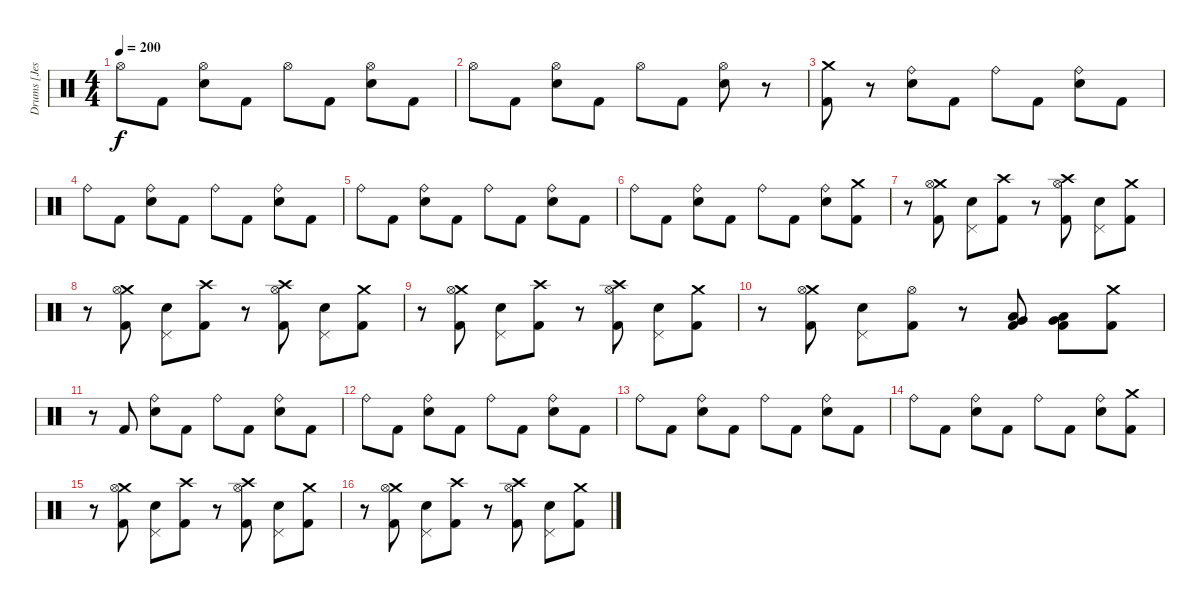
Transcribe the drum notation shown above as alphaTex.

\track ("Drums [Jesse Ingelevics]" "Drums [Jes") {instrument percussion}
\staff {score}
\articulation defaults
\ts (4 4)
\tempo 200
\clef neutral
\ks c "Hi-Hat (open)".8{dy f} "Kick (hit) 2".8
("Hi-Hat (open)" "Electric Snare (hit)").8 "Kick (hit) 2".8 "Hi-Hat (open)".8 "Kick (hit) 2".8 ("Hi-Hat (open)" "Electric Snare (hit)").8 "Kick (hit) 2".8 |
"Hi-Hat (open)".8 "Kick (hit) 2".8 ("Hi-Hat (open)" "Electric Snare (hit)").8 "Kick (hit) 2".8 "Hi-Hat (open)".8 "Kick (hit) 2".8 ("Hi-Hat (open)" "Electric Snare (hit)").8 r.8 |
("Crash medium (hit)" "Kick (hit) 2").8 r.8 ("Ride (bell)" "Electric Snare (hit)").8 "Kick (hit) 2".8 "Ride (bell)".8 "Kick (hit) 2".8 ("Ride (bell)" "Electric Snare (hit)").8 "Kick (hit) 2".8 |
"Ride (bell)".8 "Kick (hit) 2".8 ("Ride (bell)" "Electric Snare (hit)").8 "Kick (hit) 2".8 "Ride (bell)".8 "Kick (hit) 2".8 ("Ride (bell)" "Electric Snare (hit)").8 "Kick (hit) 2".8 |
"Ride (bell)".8 "Kick (hit) 2".8 ("Ride (bell)" "Electric Snare (hit)").8 "Kick (hit) 2".8 "Ride (bell)".8 "Kick (hit) 2".8 ("Ride (bell)" "Electric Snare (hit)").8 "Kick (hit) 2".8 |
"Ride (bell)".8 "Kick (hit) 2".8 ("Ride (bell)" "Electric Snare (hit)").8 "Kick (hit) 2".8 "Ride (bell)".8 "Kick (hit) 2".8 ("Ride (bell)" "Electric Snare (hit)").8 ("Crash medium (hit)" "Kick (hit) 2").8 |
r.8 ("Crash medium (hit)" "Hi-Hat (open)" "Kick (hit) 2").8 ("Pedal Hi-Hat (hit)" "Electric Snare (hit)").8 ("Crash high (hit)" "Kick (hit) 2").8 r.8 ("Crash high (hit)" "Hi-Hat (open)" "Kick (hit) 2").8 ("Pedal Hi-Hat (hit)" "Electric Snare (hit)").8 ("Crash medium (hit)" "Kick (hit) 2").8 |
r.8 ("Crash medium (hit)" "Hi-Hat (open)" "Kick (hit) 2").8 ("Pedal Hi-Hat (hit)" "Electric Snare (hit)").8 ("Crash high (hit)" "Kick (hit) 2").8 r.8 ("Crash high (hit)" "Hi-Hat (open)" "Kick (hit) 2").8 ("Pedal Hi-Hat (hit)" "Electric Snare (hit)").8 ("Crash medium (hit)" "Kick (hit) 2").8 |
r.8 ("Crash medium (hit)" "Hi-Hat (open)" "Kick (hit) 2").8 ("Pedal Hi-Hat (hit)" "Electric Snare (hit)").8 ("Crash high (hit)" "Kick (hit) 2").8 r.8 ("Crash high (hit)" "Hi-Hat (open)" "Kick (hit) 2").8 ("Pedal Hi-Hat (hit)" "Electric Snare (hit)").8 ("Crash medium (hit)" "Kick (hit) 2").8 |
r.8 ("Crash medium (hit)" "Hi-Hat (open)" "Kick (hit) 2").8 ("Pedal Hi-Hat (hit)" "Electric Snare (hit)").8 ("Hi-Hat (open)" "Kick (hit) 2").8 r.8 ("Low Floor Tom (hit)" "Very Low Tom (hit)" "Kick (hit) 2").8 ("Very Low Tom (hit)" "Low Floor Tom (hit)" "Kick (hit) 2").8 ("Crash medium (hit)" "Kick (hit) 2").8 |
r.8 "Kick (hit) 2".8 ("Ride (bell)" "Electric Snare (hit)").8 "Kick (hit) 2".8 "Ride (bell)".8 "Kick (hit) 2".8 ("Ride (bell)" "Electric Snare (hit)").8 "Kick (hit) 2".8 |
"Ride (bell)".8 "Kick (hit) 2".8 ("Ride (bell)" "Electric Snare (hit)").8 "Kick (hit) 2".8 "Ride (bell)".8 "Kick (hit) 2".8 ("Ride (bell)" "Electric Snare (hit)").8 "Kick (hit) 2".8 |
"Ride (bell)".8 "Kick (hit) 2".8 ("Ride (bell)" "Electric Snare (hit)").8 "Kick (hit) 2".8 "Ride (bell)".8 "Kick (hit) 2".8 ("Ride (bell)" "Electric Snare (hit)").8 "Kick (hit) 2".8 |
"Ride (bell)".8 "Kick (hit) 2".8 ("Ride (bell)" "Electric Snare (hit)").8 "Kick (hit) 2".8 "Ride (bell)".8 "Kick (hit) 2".8 ("Ride (bell)" "Electric Snare (hit)").8 ("Crash medium (hit)" "Kick (hit) 2").8 |
r.8 ("Crash medium (hit)" "Hi-Hat (open)" "Kick (hit) 2").8 ("Pedal Hi-Hat (hit)" "Electric Snare (hit)").8 ("Crash high (hit)" "Kick (hit) 2").8 r.8 ("Crash high (hit)" "Hi-Hat (open)" "Kick (hit) 2").8 ("Pedal Hi-Hat (hit)" "Electric Snare (hit)").8 ("Crash medium (hit)" "Kick (hit) 2").8 |
r.8 ("Crash medium (hit)" "Hi-Hat (open)" "Kick (hit) 2").8 ("Pedal Hi-Hat (hit)" "Electric Snare (hit)").8 ("Crash high (hit)" "Kick (hit) 2").8 r.8 ("Crash high (hit)" "Hi-Hat (open)" "Kick (hit) 2").8 ("Pedal Hi-Hat (hit)" "Electric Snare (hit)").8 ("Crash medium (hit)" "Kick (hit) 2").8
